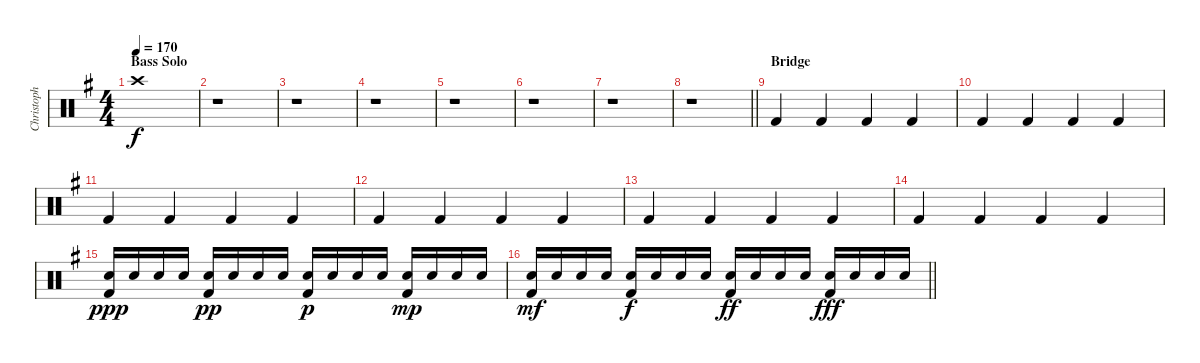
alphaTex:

\track ("Christoph Doom Schneider - Drums" "Christoph ") {instrument percussion}
\staff {score}
\articulation defaults
\ts (4 4)
\section ("" "Bass Solo")
\tempo 170
\clef neutral
\ks g "Crash high (hit)".1{dy f}
|
r.1 |
r.1 |
r.1 |
r.1 |
r.1 |
r.1 |
\barLineRight lightlight
r.1 |
\section ("" "Bridge")
"Kick (hit) 2".4 "Kick (hit) 2".4 "Kick (hit) 2".4 "Kick (hit) 2".4 |
"Kick (hit) 2".4 "Kick (hit) 2".4 "Kick (hit) 2".4 "Kick (hit) 2".4 |
"Kick (hit) 2".4 "Kick (hit) 2".4 "Kick (hit) 2".4 "Kick (hit) 2".4 |
"Kick (hit) 2".4 "Kick (hit) 2".4 "Kick (hit) 2".4 "Kick (hit) 2".4 |
"Kick (hit) 2".4 "Kick (hit) 2".4 "Kick (hit) 2".4 "Kick (hit) 2".4 |
"Kick (hit) 2".4 "Kick (hit) 2".4 "Kick (hit) 2".4 "Kick (hit) 2".4 |
("Electric Snare (hit)" "Kick (hit) 2").16{dy ppp} "Electric Snare (hit)".16 "Electric Snare (hit)".16 "Electric Snare (hit)".16 ("Electric Snare (hit)" "Kick (hit) 2").16{dy pp} "Electric Snare (hit)".16 "Electric Snare (hit)".16 "Electric Snare (hit)".16 ("Electric Snare (hit)" "Kick (hit) 2").16{dy p} "Electric Snare (hit)".16 "Electric Snare (hit)".16 "Electric Snare (hit)".16 ("Electric Snare (hit)" "Kick (hit) 2").16{dy mp} "Electric Snare (hit)".16 "Electric Snare (hit)".16 "Electric Snare (hit)".16 |
\barLineRight lightlight
("Electric Snare (hit)" "Kick (hit) 2").16{dy mf} "Electric Snare (hit)".16 "Electric Snare (hit)".16 "Electric Snare (hit)".16 ("Electric Snare (hit)" "Kick (hit) 2").16{dy f} "Electric Snare (hit)".16 "Electric Snare (hit)".16 "Electric Snare (hit)".16 ("Electric Snare (hit)" "Kick (hit) 2").16{dy ff} "Electric Snare (hit)".16 "Electric Snare (hit)".16 "Electric Snare (hit)".16 ("Electric Snare (hit)" "Kick (hit) 2").16{dy fff} "Electric Snare (hit)".16 "Electric Snare (hit)".16 "Electric Snare (hit)".16
